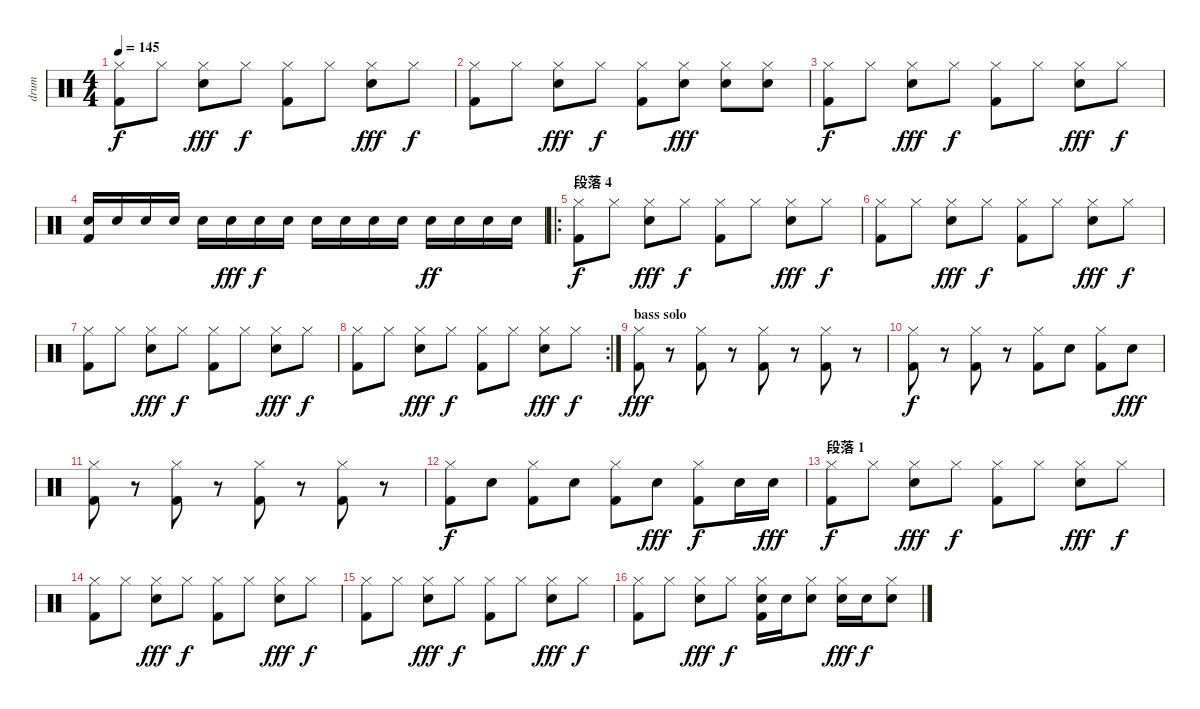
\track ("drum" "drum") {instrument percussion}
\staff {score}
\articulation defaults
\ts (4 4)
\tempo 145
\clef neutral
\ks c
("Hi-Hat (closed)" "Kick (hit) 2").8{dy f} "Hi-Hat (closed)".8 ("Hi-Hat (closed)" "Electric Snare (hit)").8{dy fff} "Hi-Hat (closed)".8{dy f} ("Hi-Hat (closed)" "Kick (hit) 2").8 "Hi-Hat (closed)".8 ("Hi-Hat (closed)" "Electric Snare (hit)").8{dy fff} "Hi-Hat (closed)".8{dy f} |
("Hi-Hat (closed)" "Kick (hit) 2").8 "Hi-Hat (closed)".8 ("Hi-Hat (closed)" "Electric Snare (hit)").8{dy fff} "Hi-Hat (closed)".8{dy f} ("Hi-Hat (closed)" "Kick (hit) 2").8 ("Hi-Hat (closed)" "Electric Snare (hit)").8{dy fff} ("Hi-Hat (closed)" "Electric Snare (hit)").8 ("Hi-Hat (closed)" "Electric Snare (hit)").8 |
("Hi-Hat (closed)" "Kick (hit) 2").8{dy f} "Hi-Hat (closed)".8 ("Hi-Hat (closed)" "Electric Snare (hit)").8{dy fff} "Hi-Hat (closed)".8{dy f} ("Hi-Hat (closed)" "Kick (hit) 2").8 "Hi-Hat (closed)".8 ("Hi-Hat (closed)" "Electric Snare (hit)").8{dy fff} "Hi-Hat (closed)".8{dy f} |
("Electric Snare (hit)" "Kick (hit) 2").16 "Electric Snare (hit)".16 "Electric Snare (hit)".16 "Electric Snare (hit)".16 "Electric Snare (hit)".16 "Electric Snare (hit)".16{dy fff} "Electric Snare (hit)".16{dy f} "Electric Snare (hit)".16 "Electric Snare (hit)".16 "Electric Snare (hit)".16 "Electric Snare (hit)".16 "Electric Snare (hit)".16 "Electric Snare (hit)".16{dy ff} "Electric Snare (hit)".16 "Electric Snare (hit)".16 "Electric Snare (hit)".16 |
\ro
\section ("" "段落 4")
("Hi-Hat (closed)" "Kick (hit) 2").8{dy f} "Hi-Hat (closed)".8 ("Hi-Hat (closed)" "Electric Snare (hit)").8{dy fff} "Hi-Hat (closed)".8{dy f} ("Hi-Hat (closed)" "Kick (hit) 2").8 "Hi-Hat (closed)".8 ("Hi-Hat (closed)" "Electric Snare (hit)").8{dy fff} "Hi-Hat (closed)".8{dy f} |
("Hi-Hat (closed)" "Kick (hit) 2").8 "Hi-Hat (closed)".8 ("Hi-Hat (closed)" "Electric Snare (hit)").8{dy fff} "Hi-Hat (closed)".8{dy f} ("Hi-Hat (closed)" "Kick (hit) 2").8 "Hi-Hat (closed)".8 ("Hi-Hat (closed)" "Electric Snare (hit)").8{dy fff} "Hi-Hat (closed)".8{dy f} |
("Hi-Hat (closed)" "Kick (hit) 2").8 "Hi-Hat (closed)".8 ("Hi-Hat (closed)" "Electric Snare (hit)").8{dy fff} "Hi-Hat (closed)".8{dy f} ("Hi-Hat (closed)" "Kick (hit) 2").8 "Hi-Hat (closed)".8 ("Hi-Hat (closed)" "Electric Snare (hit)").8{dy fff} "Hi-Hat (closed)".8{dy f} |
\rc 2
("Hi-Hat (closed)" "Kick (hit) 2").8 "Hi-Hat (closed)".8 ("Hi-Hat (closed)" "Electric Snare (hit)").8{dy fff} "Hi-Hat (closed)".8{dy f} ("Hi-Hat (closed)" "Kick (hit) 2").8 "Hi-Hat (closed)".8 ("Hi-Hat (closed)" "Electric Snare (hit)").8{dy fff} "Hi-Hat (closed)".8{dy f} |
\section ("" "bass solo")
("Hi-Hat (closed)" "Kick (hit) 2").8{dy fff} r.8 ("Hi-Hat (closed)" "Kick (hit) 2").8 r.8 ("Hi-Hat (closed)" "Kick (hit) 2").8 r.8 ("Hi-Hat (closed)" "Kick (hit) 2").8 r.8 |
("Hi-Hat (closed)" "Kick (hit) 2").8{dy f} r.8 ("Hi-Hat (closed)" "Kick (hit) 2").8 r.8 ("Hi-Hat (closed)" "Kick (hit) 2").8 "Electric Snare (hit)".8 ("Hi-Hat (closed)" "Kick (hit) 2").8 "Electric Snare (hit)".8{dy fff} |
("Hi-Hat (closed)" "Kick (hit) 2").8 r.8 ("Hi-Hat (closed)" "Kick (hit) 2").8 r.8 ("Hi-Hat (closed)" "Kick (hit) 2").8 r.8 ("Hi-Hat (closed)" "Kick (hit) 2").8 r.8 |
("Hi-Hat (closed)" "Kick (hit) 2").8{dy f} "Electric Snare (hit)".8 ("Hi-Hat (closed)" "Kick (hit) 2").8 "Electric Snare (hit)".8 ("Hi-Hat (closed)" "Kick (hit) 2").8 "Electric Snare (hit)".8{dy fff} ("Hi-Hat (closed)" "Kick (hit) 2").8{dy f} "Electric Snare (hit)".16 "Electric Snare (hit)".16{dy fff} |
\section ("" "段落 1")
("Hi-Hat (closed)" "Kick (hit) 2").8{dy f} "Hi-Hat (closed)".8 ("Hi-Hat (closed)" "Electric Snare (hit)").8{dy fff} "Hi-Hat (closed)".8{dy f} ("Hi-Hat (closed)" "Kick (hit) 2").8 "Hi-Hat (closed)".8 ("Hi-Hat (closed)" "Electric Snare (hit)").8{dy fff} "Hi-Hat (closed)".8{dy f} |
("Hi-Hat (closed)" "Kick (hit) 2").8 "Hi-Hat (closed)".8 ("Hi-Hat (closed)" "Electric Snare (hit)").8{dy fff} "Hi-Hat (closed)".8{dy f} ("Hi-Hat (closed)" "Kick (hit) 2").8 "Hi-Hat (closed)".8 ("Hi-Hat (closed)" "Electric Snare (hit)").8{dy fff} "Hi-Hat (closed)".8{dy f} |
("Hi-Hat (closed)" "Kick (hit) 2").8 "Hi-Hat (closed)".8 ("Hi-Hat (closed)" "Electric Snare (hit)").8{dy fff} "Hi-Hat (closed)".8{dy f} ("Hi-Hat (closed)" "Kick (hit) 2").8 "Hi-Hat (closed)".8 ("Hi-Hat (closed)" "Electric Snare (hit)").8{dy fff} "Hi-Hat (closed)".8{dy f} |
("Hi-Hat (closed)" "Kick (hit) 2").8 "Hi-Hat (closed)".8 ("Hi-Hat (closed)" "Electric Snare (hit)").8{dy fff} "Hi-Hat (closed)".8{dy f} ("Hi-Hat (closed)" "Electric Snare (hit)" "Kick (hit) 2").16 "Electric Snare (hit)".16 ("Hi-Hat (closed)" "Electric Snare (hit)").8 ("Hi-Hat (closed)" "Electric Snare (hit)").16{dy fff} "Electric Snare (hit)".16{dy f} ("Hi-Hat (closed)" "Electric Snare (hit)").8
